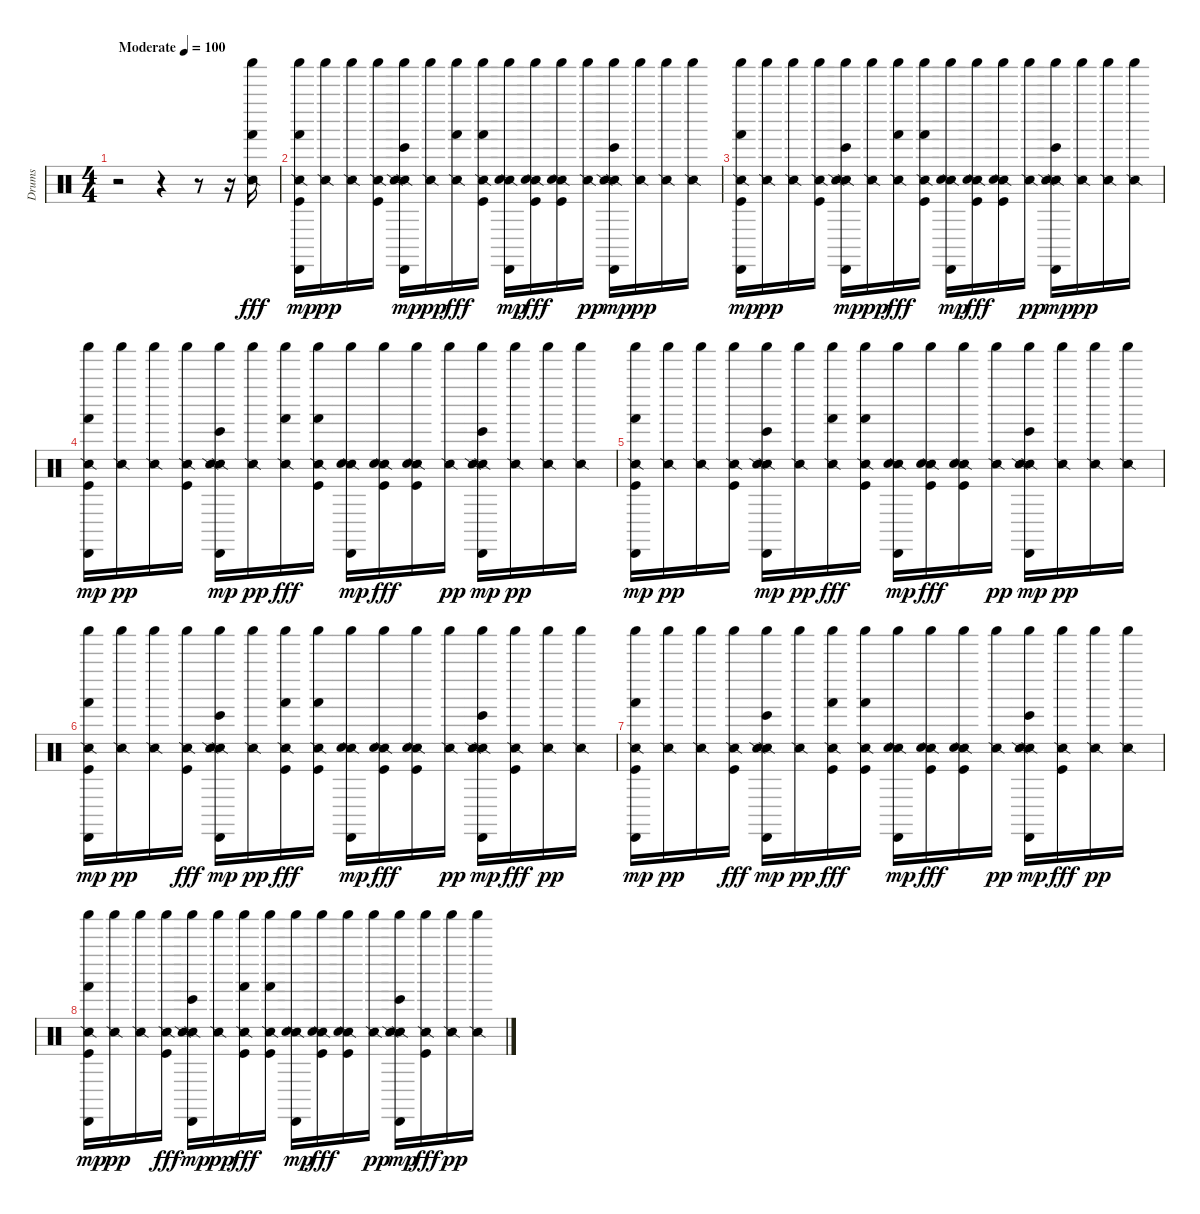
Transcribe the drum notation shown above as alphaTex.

\track ("Drums" "Drums") {instrument percussion}
\staff {score}
\articulation defaults
\ts (4 4)
\tempo (100 "Moderate")
\clef neutral
\ks c
r.2{dy fff} r.4 r.8 r.16 ("Shaker (hit)" "Snare (side stick) 2" "Hand (hit)").16 |
("Shaker (hit)" "Snare (side stick) 2" "Hand (hit)" "Kick (hit)" "Cabasa (hit)").16{dy mp} ("Shaker (hit)" "Snare (side stick) 2").16{dy pp} ("Shaker (hit)" "Snare (side stick) 2").16 ("Shaker (hit)" "Snare (side stick) 2" "Kick (hit)").16 ("Shaker (hit)" "Snare (side stick) 2" "Bongo High (hit)" "Snare (side stick) 2" "Cabasa (hit)").16{dy mp} ("Shaker (hit)" "Snare (side stick) 2").16{dy pp} ("Shaker (hit)" "Snare (side stick) 2" "Hand (hit)").16{dy fff} ("Shaker (hit)" "Snare (side stick) 2" "Hand (hit)" "Kick (hit)").16 ("Shaker (hit)" "Snare (side stick) 2" "Snare (hit)" "Cabasa (hit)").16{dy mp} ("Shaker (hit)" "Snare (side stick) 2" "Snare (hit)" "Kick (hit)").16{dy fff} ("Shaker (hit)" "Snare (side stick) 2" "Snare (hit)" "Kick (hit)").16 ("Shaker (hit)" "Snare (side stick) 2").16{dy pp} ("Shaker (hit)" "Snare (side stick) 2" "Bongo High (hit)" "Snare (side stick) 2" "Cabasa (hit)").16{dy mp} ("Shaker (hit)" "Snare (side stick) 2").16{dy pp} ("Shaker (hit)" "Snare (side stick) 2").16 ("Shaker (hit)" "Snare (side stick) 2").16 |
("Shaker (hit)" "Snare (side stick) 2" "Hand (hit)" "Kick (hit)" "Cabasa (hit)").16{dy mp} ("Shaker (hit)" "Snare (side stick) 2").16{dy pp} ("Shaker (hit)" "Snare (side stick) 2").16 ("Shaker (hit)" "Snare (side stick) 2" "Kick (hit)").16 ("Shaker (hit)" "Snare (side stick) 2" "Bongo High (hit)" "Snare (side stick) 2" "Cabasa (hit)").16{dy mp} ("Shaker (hit)" "Snare (side stick) 2").16{dy pp} ("Shaker (hit)" "Snare (side stick) 2" "Hand (hit)").16{dy fff} ("Shaker (hit)" "Snare (side stick) 2" "Hand (hit)" "Kick (hit)").16 ("Shaker (hit)" "Snare (side stick) 2" "Snare (hit)" "Cabasa (hit)").16{dy mp} ("Shaker (hit)" "Snare (side stick) 2" "Snare (hit)" "Kick (hit)").16{dy fff} ("Shaker (hit)" "Snare (side stick) 2" "Snare (hit)" "Kick (hit)").16 ("Shaker (hit)" "Snare (side stick) 2").16{dy pp} ("Shaker (hit)" "Snare (side stick) 2" "Bongo High (hit)" "Snare (side stick) 2" "Cabasa (hit)").16{dy mp} ("Shaker (hit)" "Snare (side stick) 2").16{dy pp} ("Shaker (hit)" "Snare (side stick) 2").16 ("Shaker (hit)" "Snare (side stick) 2").16 |
("Shaker (hit)" "Snare (side stick) 2" "Hand (hit)" "Kick (hit)" "Cabasa (hit)").16{dy mp} ("Shaker (hit)" "Snare (side stick) 2").16{dy pp} ("Shaker (hit)" "Snare (side stick) 2").16 ("Shaker (hit)" "Snare (side stick) 2" "Kick (hit)").16 ("Shaker (hit)" "Snare (side stick) 2" "Bongo High (hit)" "Snare (side stick) 2" "Cabasa (hit)").16{dy mp} ("Shaker (hit)" "Snare (side stick) 2").16{dy pp} ("Shaker (hit)" "Snare (side stick) 2" "Hand (hit)").16{dy fff} ("Shaker (hit)" "Snare (side stick) 2" "Hand (hit)" "Kick (hit)").16 ("Shaker (hit)" "Snare (side stick) 2" "Snare (hit)" "Cabasa (hit)").16{dy mp} ("Shaker (hit)" "Snare (side stick) 2" "Snare (hit)" "Kick (hit)").16{dy fff} ("Shaker (hit)" "Snare (side stick) 2" "Snare (hit)" "Kick (hit)").16 ("Shaker (hit)" "Snare (side stick) 2").16{dy pp} ("Shaker (hit)" "Snare (side stick) 2" "Bongo High (hit)" "Snare (side stick) 2" "Cabasa (hit)").16{dy mp} ("Shaker (hit)" "Snare (side stick) 2").16{dy pp} ("Shaker (hit)" "Snare (side stick) 2").16 ("Shaker (hit)" "Snare (side stick) 2").16 |
("Shaker (hit)" "Snare (side stick) 2" "Hand (hit)" "Kick (hit)" "Cabasa (hit)").16{dy mp} ("Shaker (hit)" "Snare (side stick) 2").16{dy pp} ("Shaker (hit)" "Snare (side stick) 2").16 ("Shaker (hit)" "Snare (side stick) 2" "Kick (hit)").16 ("Shaker (hit)" "Snare (side stick) 2" "Bongo High (hit)" "Snare (side stick) 2" "Cabasa (hit)").16{dy mp} ("Shaker (hit)" "Snare (side stick) 2").16{dy pp} ("Shaker (hit)" "Snare (side stick) 2" "Hand (hit)").16{dy fff} ("Shaker (hit)" "Snare (side stick) 2" "Hand (hit)" "Kick (hit)").16 ("Shaker (hit)" "Snare (side stick) 2" "Snare (hit)" "Cabasa (hit)").16{dy mp} ("Shaker (hit)" "Snare (side stick) 2" "Snare (hit)" "Kick (hit)").16{dy fff} ("Shaker (hit)" "Snare (side stick) 2" "Snare (hit)" "Kick (hit)").16 ("Shaker (hit)" "Snare (side stick) 2").16{dy pp} ("Shaker (hit)" "Snare (side stick) 2" "Bongo High (hit)" "Snare (side stick) 2" "Cabasa (hit)").16{dy mp} ("Shaker (hit)" "Snare (side stick) 2").16{dy pp} ("Shaker (hit)" "Snare (side stick) 2").16 ("Shaker (hit)" "Snare (side stick) 2").16 |
("Shaker (hit)" "Snare (side stick) 2" "Hand (hit)" "Kick (hit)" "Cabasa (hit)").16{dy mp} ("Shaker (hit)" "Snare (side stick) 2").16{dy pp} ("Shaker (hit)" "Snare (side stick) 2").16 ("Shaker (hit)" "Snare (side stick) 2" "Kick (hit)").16{dy fff} ("Shaker (hit)" "Snare (side stick) 2" "Bongo High (hit)" "Snare (side stick) 2" "Cabasa (hit)").16{dy mp} ("Shaker (hit)" "Snare (side stick) 2").16{dy pp} ("Shaker (hit)" "Snare (side stick) 2" "Hand (hit)" "Kick (hit)").16{dy fff} ("Shaker (hit)" "Snare (side stick) 2" "Hand (hit)" "Kick (hit)").16 ("Shaker (hit)" "Snare (side stick) 2" "Snare (hit)" "Cabasa (hit)").16{dy mp} ("Shaker (hit)" "Snare (side stick) 2" "Snare (hit)" "Kick (hit)").16{dy fff} ("Shaker (hit)" "Snare (side stick) 2" "Snare (hit)" "Kick (hit)").16 ("Shaker (hit)" "Snare (side stick) 2").16{dy pp} ("Shaker (hit)" "Snare (side stick) 2" "Bongo High (hit)" "Snare (side stick) 2" "Cabasa (hit)").16{dy mp} ("Shaker (hit)" "Snare (side stick) 2" "Kick (hit)").16{dy fff} ("Shaker (hit)" "Snare (side stick) 2").16{dy pp} ("Shaker (hit)" "Snare (side stick) 2").16 |
("Shaker (hit)" "Snare (side stick) 2" "Hand (hit)" "Kick (hit)" "Cabasa (hit)").16{dy mp} ("Shaker (hit)" "Snare (side stick) 2").16{dy pp} ("Shaker (hit)" "Snare (side stick) 2").16 ("Shaker (hit)" "Snare (side stick) 2" "Kick (hit)").16{dy fff} ("Shaker (hit)" "Snare (side stick) 2" "Bongo High (hit)" "Snare (side stick) 2" "Cabasa (hit)").16{dy mp} ("Shaker (hit)" "Snare (side stick) 2").16{dy pp} ("Shaker (hit)" "Snare (side stick) 2" "Hand (hit)" "Kick (hit)").16{dy fff} ("Shaker (hit)" "Snare (side stick) 2" "Hand (hit)" "Kick (hit)").16 ("Shaker (hit)" "Snare (side stick) 2" "Snare (hit)" "Cabasa (hit)").16{dy mp} ("Shaker (hit)" "Snare (side stick) 2" "Snare (hit)" "Kick (hit)").16{dy fff} ("Shaker (hit)" "Snare (side stick) 2" "Snare (hit)" "Kick (hit)").16 ("Shaker (hit)" "Snare (side stick) 2").16{dy pp} ("Shaker (hit)" "Snare (side stick) 2" "Bongo High (hit)" "Snare (side stick) 2" "Cabasa (hit)").16{dy mp} ("Shaker (hit)" "Snare (side stick) 2" "Kick (hit)").16{dy fff} ("Shaker (hit)" "Snare (side stick) 2").16{dy pp} ("Shaker (hit)" "Snare (side stick) 2").16 |
("Shaker (hit)" "Snare (side stick) 2" "Hand (hit)" "Kick (hit)" "Cabasa (hit)").16{dy mp} ("Shaker (hit)" "Snare (side stick) 2").16{dy pp} ("Shaker (hit)" "Snare (side stick) 2").16 ("Shaker (hit)" "Snare (side stick) 2" "Kick (hit)").16{dy fff} ("Shaker (hit)" "Snare (side stick) 2" "Bongo High (hit)" "Snare (side stick) 2" "Cabasa (hit)").16{dy mp} ("Shaker (hit)" "Snare (side stick) 2").16{dy pp} ("Shaker (hit)" "Snare (side stick) 2" "Hand (hit)" "Kick (hit)").16{dy fff} ("Shaker (hit)" "Snare (side stick) 2" "Hand (hit)" "Kick (hit)").16 ("Shaker (hit)" "Snare (side stick) 2" "Snare (hit)" "Cabasa (hit)").16{dy mp} ("Shaker (hit)" "Snare (side stick) 2" "Snare (hit)" "Kick (hit)").16{dy fff} ("Shaker (hit)" "Snare (side stick) 2" "Snare (hit)" "Kick (hit)").16 ("Shaker (hit)" "Snare (side stick) 2").16{dy pp} ("Shaker (hit)" "Snare (side stick) 2" "Bongo High (hit)" "Snare (side stick) 2" "Cabasa (hit)").16{dy mp} ("Shaker (hit)" "Snare (side stick) 2" "Kick (hit)").16{dy fff} ("Shaker (hit)" "Snare (side stick) 2").16{dy pp} ("Shaker (hit)" "Snare (side stick) 2").16
